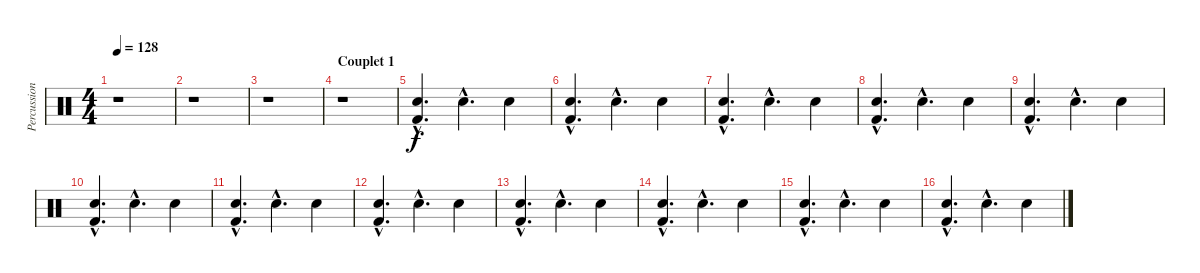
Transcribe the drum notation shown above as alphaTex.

\track ("Percussions" "Percussion") {instrument percussion}
\staff {score}
\articulation defaults
\ts (4 4)
\tempo 128
\clef neutral
\ks c
r.1{dy f} |
r.1 |
r.1 |
\section ("" "Couplet 1")
r.1 |
("Electric Snare (hit)"{hac} "Kick (hit) 2"{hac}).4{d} "Electric Snare (hit)"{hac}.4{d} "Electric Snare (hit)".4 |
("Electric Snare (hit)"{hac} "Kick (hit) 2"{hac}).4{d} "Electric Snare (hit)"{hac}.4{d} "Electric Snare (hit)".4 |
("Electric Snare (hit)"{hac} "Kick (hit) 2"{hac}).4{d} "Electric Snare (hit)"{hac}.4{d} "Electric Snare (hit)".4 |
("Electric Snare (hit)"{hac} "Kick (hit) 2"{hac}).4{d} "Electric Snare (hit)"{hac}.4{d} "Electric Snare (hit)".4 |
("Electric Snare (hit)"{hac} "Kick (hit) 2"{hac}).4{d} "Electric Snare (hit)"{hac}.4{d} "Electric Snare (hit)".4 |
("Electric Snare (hit)"{hac} "Kick (hit) 2"{hac}).4{d} "Electric Snare (hit)"{hac}.4{d} "Electric Snare (hit)".4 |
("Electric Snare (hit)"{hac} "Kick (hit) 2"{hac}).4{d} "Electric Snare (hit)"{hac}.4{d} "Electric Snare (hit)".4 |
("Electric Snare (hit)"{hac} "Kick (hit) 2"{hac}).4{d} "Electric Snare (hit)"{hac}.4{d} "Electric Snare (hit)".4 |
("Electric Snare (hit)"{hac} "Kick (hit) 2"{hac}).4{d} "Electric Snare (hit)"{hac}.4{d} "Electric Snare (hit)".4 |
("Electric Snare (hit)"{hac} "Kick (hit) 2"{hac}).4{d} "Electric Snare (hit)"{hac}.4{d} "Electric Snare (hit)".4 |
("Electric Snare (hit)"{hac} "Kick (hit) 2"{hac}).4{d} "Electric Snare (hit)"{hac}.4{d} "Electric Snare (hit)".4 |
("Electric Snare (hit)"{hac} "Kick (hit) 2"{hac}).4{d} "Electric Snare (hit)"{hac}.4{d} "Electric Snare (hit)".4
